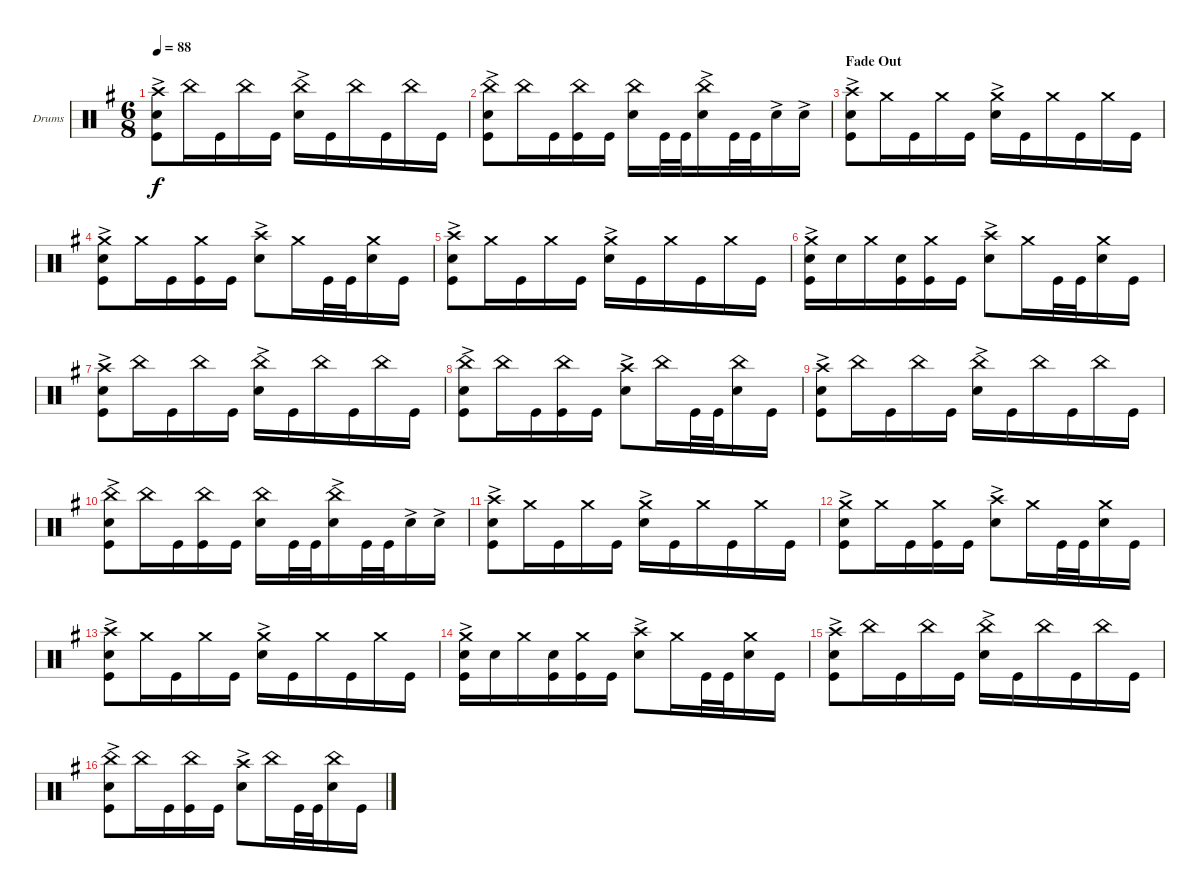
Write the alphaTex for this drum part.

\bracketExtendMode groupsimilarinstruments
\firstSystemTrackNameOrientation horizontal
\otherSystemsTrackNameOrientation horizontal
\track ("Drumkit" "Drums") {instrument percussion}
\staff {score}
\articulation defaults
\ts (6 8)
\tempo 88
\clef neutral
\ks eminor
("Crash high (hit)" "Kick (hit)" "Snare (hit) 2"{ac}).8{dy f} "China (hit)".16 "Kick (hit)".16 "China (hit)".16 "Kick (hit)".16 ("Snare (hit) 2"{ac} "China (hit)").16 "Kick (hit)".16 "China (hit)".16 "Kick (hit)".16 "China (hit)".16 "Kick (hit)".16 |
("Kick (hit)" "Snare (hit) 2"{ac} "China (hit)").8 "China (hit)".16 "Kick (hit)".16 ("Kick (hit)" "China (hit)").16 "Kick (hit)".16 ("Snare (hit) 2" "China (hit)").16 "Kick (hit)".32 "Kick (hit)".32 ("Snare (hit) 2"{ac} "China (hit)").16 "Kick (hit)".32 "Kick (hit)".32 "Snare (hit) 2"{ac}.16 "Snare (hit) 2"{ac}.16 |
\section ("" "Fade Out")
("Crash high (hit)" "Kick (hit)" "Snare (hit) 2"{ac}).8 "Crash medium (hit)".16 "Kick (hit)".16 "Crash medium (hit)".16 "Kick (hit)".16 ("Snare (hit) 2"{ac} "Crash medium (hit)").16 "Kick (hit)".16 "Crash medium (hit)".16 "Kick (hit)".16 "Crash medium (hit)".16 "Kick (hit)".16 |
("Kick (hit)" "Crash medium (hit)" "Snare (hit) 2"{ac}).8 "Crash medium (hit)".16 "Kick (hit)".16 ("Kick (hit)" "Crash medium (hit)").16 "Kick (hit)".16 ("Crash high (hit)" "Snare (hit) 2"{ac}).8 "Crash medium (hit)".16 "Kick (hit)".32 "Kick (hit)".32 ("Snare (hit) 2" "Crash medium (hit)").16 "Kick (hit)".16 |
("Crash high (hit)" "Kick (hit)" "Snare (hit) 2"{ac}).8 "Crash medium (hit)".16 "Kick (hit)".16 "Crash medium (hit)".16 "Kick (hit)".16 ("Snare (hit) 2"{ac} "Crash medium (hit)").16 "Kick (hit)".16 "Crash medium (hit)".16 "Kick (hit)".16 "Crash medium (hit)".16 "Kick (hit)".16 |
("Kick (hit)" "Crash medium (hit)" "Snare (hit) 2"{ac}).16 "Snare (hit) 2".16 "Crash medium (hit)".16 ("Kick (hit)" "Snare (hit) 2").16 ("Kick (hit)" "Crash medium (hit)").16 "Kick (hit)".16 ("Crash high (hit)" "Snare (hit) 2"{ac}).8 "Crash medium (hit)".16 "Kick (hit)".32 "Kick (hit)".32 ("Snare (hit) 2" "Crash medium (hit)").16 "Kick (hit)".16 |
("Crash high (hit)" "Kick (hit)" "Snare (hit) 2"{ac}).8 "China (hit)".16 "Kick (hit)".16 "China (hit)".16 "Kick (hit)".16 ("Snare (hit) 2"{ac} "China (hit)").16 "Kick (hit)".16 "China (hit)".16 "Kick (hit)".16 "China (hit)".16 "Kick (hit)".16 |
("Kick (hit)" "Snare (hit) 2"{ac} "China (hit)").8 "China (hit)".16 "Kick (hit)".16 ("Kick (hit)" "China (hit)").16 "Kick (hit)".16 ("Crash high (hit)" "Snare (hit) 2"{ac}).8 "China (hit)".16 "Kick (hit)".32 "Kick (hit)".32 ("Snare (hit) 2" "China (hit)").16 "Kick (hit)".16 |
("Crash high (hit)" "Kick (hit)" "Snare (hit) 2"{ac}).8 "China (hit)".16 "Kick (hit)".16 "China (hit)".16 "Kick (hit)".16 ("Snare (hit) 2"{ac} "China (hit)").16 "Kick (hit)".16 "China (hit)".16 "Kick (hit)".16 "China (hit)".16 "Kick (hit)".16 |
("Kick (hit)" "Snare (hit) 2"{ac} "China (hit)").8 "China (hit)".16 "Kick (hit)".16 ("Kick (hit)" "China (hit)").16 "Kick (hit)".16 ("Snare (hit) 2" "China (hit)").16 "Kick (hit)".32 "Kick (hit)".32 ("Snare (hit) 2"{ac} "China (hit)").16 "Kick (hit)".32 "Kick (hit)".32 "Snare (hit) 2"{ac}.16 "Snare (hit) 2"{ac}.16 |
("Crash high (hit)" "Kick (hit)" "Snare (hit) 2"{ac}).8 "Crash medium (hit)".16 "Kick (hit)".16 "Crash medium (hit)".16 "Kick (hit)".16 ("Snare (hit) 2"{ac} "Crash medium (hit)").16 "Kick (hit)".16 "Crash medium (hit)".16 "Kick (hit)".16 "Crash medium (hit)".16 "Kick (hit)".16 |
("Kick (hit)" "Crash medium (hit)" "Snare (hit) 2"{ac}).8 "Crash medium (hit)".16 "Kick (hit)".16 ("Kick (hit)" "Crash medium (hit)").16 "Kick (hit)".16 ("Crash high (hit)" "Snare (hit) 2"{ac}).8 "Crash medium (hit)".16 "Kick (hit)".32 "Kick (hit)".32 ("Snare (hit) 2" "Crash medium (hit)").16 "Kick (hit)".16 |
("Crash high (hit)" "Kick (hit)" "Snare (hit) 2"{ac}).8 "Crash medium (hit)".16 "Kick (hit)".16 "Crash medium (hit)".16 "Kick (hit)".16 ("Snare (hit) 2"{ac} "Crash medium (hit)").16 "Kick (hit)".16 "Crash medium (hit)".16 "Kick (hit)".16 "Crash medium (hit)".16 "Kick (hit)".16 |
("Kick (hit)" "Crash medium (hit)" "Snare (hit) 2"{ac}).16 "Snare (hit) 2".16 "Crash medium (hit)".16 ("Kick (hit)" "Snare (hit) 2").16 ("Kick (hit)" "Crash medium (hit)").16 "Kick (hit)".16 ("Crash high (hit)" "Snare (hit) 2"{ac}).8 "Crash medium (hit)".16 "Kick (hit)".32 "Kick (hit)".32 ("Snare (hit) 2" "Crash medium (hit)").16 "Kick (hit)".16 |
("Crash high (hit)" "Kick (hit)" "Snare (hit) 2"{ac}).8 "China (hit)".16 "Kick (hit)".16 "China (hit)".16 "Kick (hit)".16 ("Snare (hit) 2"{ac} "China (hit)").16 "Kick (hit)".16 "China (hit)".16 "Kick (hit)".16 "China (hit)".16 "Kick (hit)".16 |
("Kick (hit)" "Snare (hit) 2"{ac} "China (hit)").8 "China (hit)".16 "Kick (hit)".16 ("Kick (hit)" "China (hit)").16 "Kick (hit)".16 ("Crash high (hit)" "Snare (hit) 2"{ac}).8 "China (hit)".16 "Kick (hit)".32 "Kick (hit)".32 ("Snare (hit) 2" "China (hit)").16 "Kick (hit)".16
